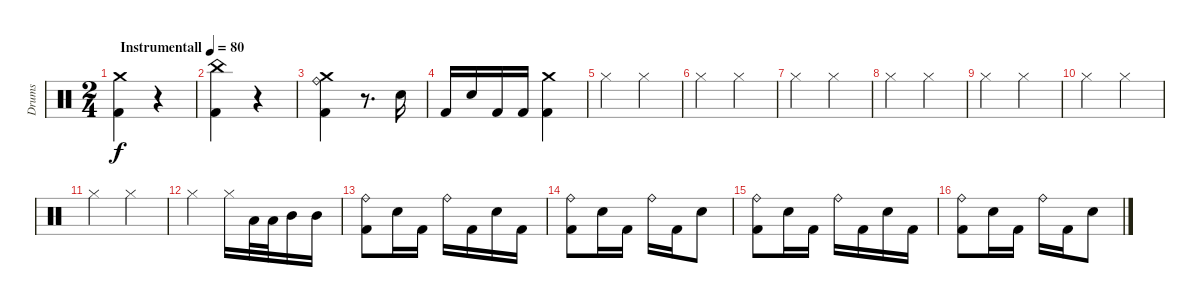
\track ("Drums" "Drums") {instrument percussion}
\staff {score}
\articulation defaults
\ts (2 4)
\tempo (80 "Instrumentall")
\clef neutral
\ks aminor
("Crash medium (hit)" "Kick (hit) 2").4{dy f} r.4 |
("China (hit)" "Kick (hit) 2").4 r.4 |
("Ride (bell)" "Kick (hit) 2" "Crash medium (hit)").4 r.8{d} "Electric Snare (hit)".16 |
"Kick (hit) 2".16 "Electric Snare (hit)".16 "Kick (hit) 2".16 "Kick (hit) 2".16 ("Kick (hit) 2" "Crash medium (hit)").4 |
"Hi-Hat (closed)".4 "Hi-Hat (closed)".4 |
"Hi-Hat (closed)".4 "Hi-Hat (closed)".4 |
"Hi-Hat (closed)".4 "Hi-Hat (closed)".4 |
"Hi-Hat (closed)".4 "Hi-Hat (closed)".4 |
"Hi-Hat (closed)".4 "Hi-Hat (closed)".4 |
"Hi-Hat (closed)".4 "Hi-Hat (closed)".4 |
"Hi-Hat (closed)".4 "Hi-Hat (closed)".4 |
"Hi-Hat (closed)".4 "Hi-Hat (closed)".16 "Low Tom (hit)".32 "Low Tom (hit)".32 "Mid Tom (hit)".16 "Mid Tom (hit)".16 |
("Kick (hit) 2" "Ride (bell)").8 "Electric Snare (hit)".16 "Kick (hit) 2".16 "Ride (bell)".16 "Kick (hit) 2".16 "Electric Snare (hit)".16 "Kick (hit) 2".16 |
("Kick (hit) 2" "Ride (bell)").8 "Electric Snare (hit)".16 "Kick (hit) 2".16 "Ride (bell)".16 "Kick (hit) 2".16 "Electric Snare (hit)".8 |
("Kick (hit) 2" "Ride (bell)").8 "Electric Snare (hit)".16 "Kick (hit) 2".16 "Ride (bell)".16 "Kick (hit) 2".16 "Electric Snare (hit)".16 "Kick (hit) 2".16 |
("Kick (hit) 2" "Ride (bell)").8 "Electric Snare (hit)".16 "Kick (hit) 2".16 "Ride (bell)".16 "Kick (hit) 2".16 "Electric Snare (hit)".8
